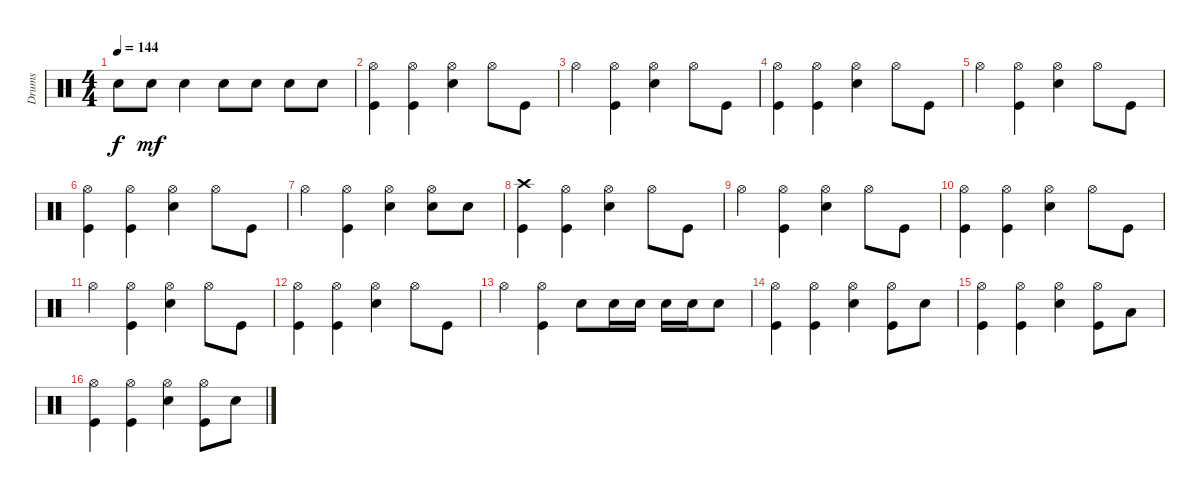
\track ("Drums               " "Drums     ") {instrument percussion}
\staff {score}
\articulation defaults
\ts (4 4)
\tempo 144
\clef neutral
\ks c "Snare (hit)"{t}.8{dy f} "Snare (hit) 2".8{dy mf} "Snare (hit) 2".4 "Snare (hit) 2".8 "Snare (hit) 2".8 "Snare (hit) 2".8 "Snare (hit) 2".8
|
("Kick (hit)" "Hi-Hat (open)").4 ("Kick (hit)" "Hi-Hat (open)").4 ("Snare (hit) 2" "Hi-Hat (open)").4 "Hi-Hat (open)".8 "Kick (hit)".8 |
"Hi-Hat (open)".4 ("Hi-Hat (open)" "Kick (hit)").4 ("Snare (hit) 2" "Hi-Hat (open)").4 "Hi-Hat (open)".8 "Kick (hit)".8 |
("Kick (hit)" "Hi-Hat (open)").4 ("Kick (hit)" "Hi-Hat (open)").4 ("Snare (hit) 2" "Hi-Hat (open)").4 "Hi-Hat (open)".8 "Kick (hit)".8 |
"Hi-Hat (open)".4 ("Hi-Hat (open)" "Kick (hit)").4 ("Snare (hit) 2" "Hi-Hat (open)").4 "Hi-Hat (open)".8 "Kick (hit)".8 |
("Kick (hit)" "Hi-Hat (open)").4 ("Kick (hit)" "Hi-Hat (open)").4 ("Snare (hit) 2" "Hi-Hat (open)").4 "Hi-Hat (open)".8 "Kick (hit)".8 |
"Hi-Hat (open)".4 ("Hi-Hat (open)" "Kick (hit)").4 ("Snare (hit) 2" "Hi-Hat (open)").4 ("Hi-Hat (open)" "Snare (hit) 2").8 "Snare (hit) 2".8 |
("Kick (hit)" "Crash high (hit)").4 ("Kick (hit)" "Hi-Hat (open)").4 ("Snare (hit) 2" "Hi-Hat (open)").4 "Hi-Hat (open)".8 "Kick (hit)".8 |
"Hi-Hat (open)".4 ("Hi-Hat (open)" "Kick (hit)").4 ("Snare (hit) 2" "Hi-Hat (open)").4 "Hi-Hat (open)".8 "Kick (hit)".8 |
("Kick (hit)" "Hi-Hat (open)").4 ("Kick (hit)" "Hi-Hat (open)").4 ("Snare (hit) 2" "Hi-Hat (open)").4 "Hi-Hat (open)".8 "Kick (hit)".8 |
"Hi-Hat (open)".4 ("Hi-Hat (open)" "Kick (hit)").4 ("Snare (hit) 2" "Hi-Hat (open)").4 "Hi-Hat (open)".8 "Kick (hit)".8 |
("Kick (hit)" "Hi-Hat (open)").4 ("Kick (hit)" "Hi-Hat (open)").4 ("Snare (hit) 2" "Hi-Hat (open)").4 "Hi-Hat (open)".8 "Kick (hit)".8 |
"Hi-Hat (open)".4 ("Hi-Hat (open)" "Kick (hit)").4 "Snare (hit) 2".8 "Snare (hit) 2".16 "Snare (hit) 2".16 "Snare (hit) 2".16 "Snare (hit) 2".16 "Snare (hit) 2".8 |
("Kick (hit)" "Hi-Hat (open)").4 ("Kick (hit)" "Hi-Hat (open)").4 ("Snare (hit) 2" "Hi-Hat (open)").4 ("Hi-Hat (open)" "Kick (hit)").8 "Snare (hit) 2".8 |
("Kick (hit)" "Hi-Hat (open)").4 ("Kick (hit)" "Hi-Hat (open)").4 ("Snare (hit) 2" "Hi-Hat (open)").4 ("Kick (hit)" "Hi-Hat (open)").8 "Low Tom (hit)".8 |
("Kick (hit)" "Hi-Hat (open)").4 ("Kick (hit)" "Hi-Hat (open)").4 ("Snare (hit) 2" "Hi-Hat (open)").4 ("Hi-Hat (open)" "Kick (hit)").8 "Snare (hit) 2".8
